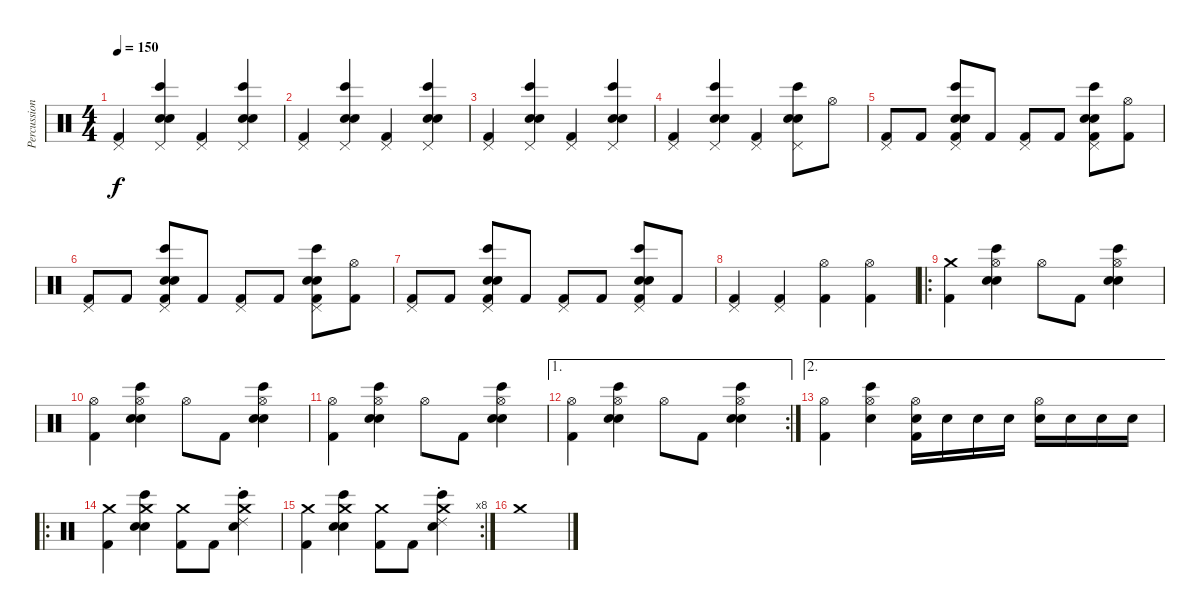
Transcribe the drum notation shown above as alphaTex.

\track ("Percussion" "Percussion") {instrument percussion}
\staff {score}
\articulation defaults
\ts (4 4)
\tempo 150
\clef neutral
\ks c
("Pedal Hi-Hat (hit)" "Kick (hit) 2").4{dy f} ("Hand Clap (hit)" "Bongo High (hit)" "Pedal Hi-Hat (hit)" "Snare (hit) 2").4 ("Pedal Hi-Hat (hit)" "Kick (hit) 2").4 ("Hand Clap (hit)" "Bongo High (hit)" "Pedal Hi-Hat (hit)" "Snare (hit) 2").4 |
("Pedal Hi-Hat (hit)" "Kick (hit) 2").4 ("Hand Clap (hit)" "Bongo High (hit)" "Pedal Hi-Hat (hit)" "Snare (hit) 2").4 ("Pedal Hi-Hat (hit)" "Kick (hit) 2").4 ("Hand Clap (hit)" "Bongo High (hit)" "Pedal Hi-Hat (hit)" "Snare (hit) 2").4 |
("Pedal Hi-Hat (hit)" "Kick (hit) 2").4 ("Hand Clap (hit)" "Bongo High (hit)" "Pedal Hi-Hat (hit)" "Snare (hit) 2").4 ("Pedal Hi-Hat (hit)" "Kick (hit) 2").4 ("Hand Clap (hit)" "Bongo High (hit)" "Pedal Hi-Hat (hit)" "Snare (hit) 2").4 |
("Pedal Hi-Hat (hit)" "Kick (hit) 2").4 ("Hand Clap (hit)" "Bongo High (hit)" "Pedal Hi-Hat (hit)" "Snare (hit) 2").4 ("Pedal Hi-Hat (hit)" "Kick (hit) 2").4 ("Hand Clap (hit)" "Bongo High (hit)" "Pedal Hi-Hat (hit)" "Snare (hit) 2").8 "Hi-Hat (open)".8 |
("Pedal Hi-Hat (hit)" "Kick (hit) 2").8 "Kick (hit) 2".8 ("Hand Clap (hit)" "Bongo High (hit)" "Pedal Hi-Hat (hit)" "Snare (hit) 2" "Kick (hit) 2").8 "Kick (hit) 2".8 ("Pedal Hi-Hat (hit)" "Kick (hit) 2").8 "Kick (hit) 2".8 ("Hand Clap (hit)" "Bongo High (hit)" "Pedal Hi-Hat (hit)" "Snare (hit) 2" "Kick (hit) 2").8 ("Hi-Hat (open)" "Kick (hit) 2").8 |
("Pedal Hi-Hat (hit)" "Kick (hit) 2").8 "Kick (hit) 2".8 ("Hand Clap (hit)" "Bongo High (hit)" "Pedal Hi-Hat (hit)" "Snare (hit) 2" "Kick (hit) 2").8 "Kick (hit) 2".8 ("Pedal Hi-Hat (hit)" "Kick (hit) 2").8 "Kick (hit) 2".8 ("Hand Clap (hit)" "Bongo High (hit)" "Pedal Hi-Hat (hit)" "Snare (hit) 2" "Kick (hit) 2").8 ("Hi-Hat (open)" "Kick (hit) 2").8 |
("Pedal Hi-Hat (hit)" "Kick (hit) 2").8 "Kick (hit) 2".8 ("Hand Clap (hit)" "Bongo High (hit)" "Pedal Hi-Hat (hit)" "Snare (hit) 2" "Kick (hit) 2").8 "Kick (hit) 2".8 ("Pedal Hi-Hat (hit)" "Kick (hit) 2").8 "Kick (hit) 2".8 ("Hand Clap (hit)" "Bongo High (hit)" "Pedal Hi-Hat (hit)" "Snare (hit) 2" "Kick (hit) 2").8 "Kick (hit) 2".8 |
("Pedal Hi-Hat (hit)" "Kick (hit) 2").4 ("Pedal Hi-Hat (hit)" "Kick (hit) 2").4 ("Hi-Hat (open)" "Kick (hit) 2").4 ("Hi-Hat (open)" "Kick (hit) 2").4 |
\ro
("Crash medium (hit)" "Kick (hit) 2").4 ("Hi-Hat (open)" "Hand Clap (hit)" "Bongo High (hit)" "Snare (hit) 2").4 "Hi-Hat (open)".8 "Kick (hit) 2".8 ("Hi-Hat (open)" "Hand Clap (hit)" "Bongo High (hit)" "Snare (hit) 2").4 |
("Hi-Hat (open)" "Kick (hit) 2").4 ("Hi-Hat (open)" "Hand Clap (hit)" "Bongo High (hit)" "Snare (hit) 2").4 "Hi-Hat (open)".8 "Kick (hit) 2".8 ("Hi-Hat (open)" "Hand Clap (hit)" "Bongo High (hit)" "Snare (hit) 2").4 |
("Hi-Hat (open)" "Kick (hit) 2").4 ("Hi-Hat (open)" "Hand Clap (hit)" "Bongo High (hit)" "Snare (hit) 2").4 "Hi-Hat (open)".8 "Kick (hit) 2".8 ("Hi-Hat (open)" "Hand Clap (hit)" "Bongo High (hit)" "Snare (hit) 2").4 |
\ae 1
\rc 2
("Hi-Hat (open)" "Kick (hit) 2").4 ("Hi-Hat (open)" "Hand Clap (hit)" "Bongo High (hit)" "Snare (hit) 2").4 "Hi-Hat (open)".8 "Kick (hit) 2".8 ("Hi-Hat (open)" "Hand Clap (hit)" "Bongo High (hit)" "Snare (hit) 2").4 |
\ae 2
("Hi-Hat (open)" "Kick (hit) 2").4 ("Hi-Hat (open)" "Bongo High (hit)" "Snare (hit) 2").4 ("Hi-Hat (open)" "Snare (hit) 2" "Kick (hit) 2").16 "Snare (hit) 2".16 "Snare (hit) 2".16 "Snare (hit) 2".16 ("Hi-Hat (open)" "Snare (hit) 2").16 "Snare (hit) 2".16 "Snare (hit) 2".16 "Snare (hit) 2".16 |
\ro
("Crash medium (hit)" "Kick (hit) 2").4 ("Crash medium (hit)" "Bongo High (hit)" "Hand Clap (hit)" "Snare (hit) 2").4 ("Crash medium (hit)" "Kick (hit) 2").8 "Kick (hit) 2".8 ("Crash medium (hit)" "Bongo High (hit)" "Ride (choke) 2" "Snare (hit) 2").4 |
\rc 8
("Crash medium (hit)" "Kick (hit) 2").4 ("Crash medium (hit)" "Bongo High (hit)" "Hand Clap (hit)" "Snare (hit) 2").4 ("Crash medium (hit)" "Kick (hit) 2").8 "Kick (hit) 2".8 ("Crash medium (hit)" "Bongo High (hit)" "Ride (choke) 2" "Snare (hit) 2").4 |
"Crash medium (hit)".1
